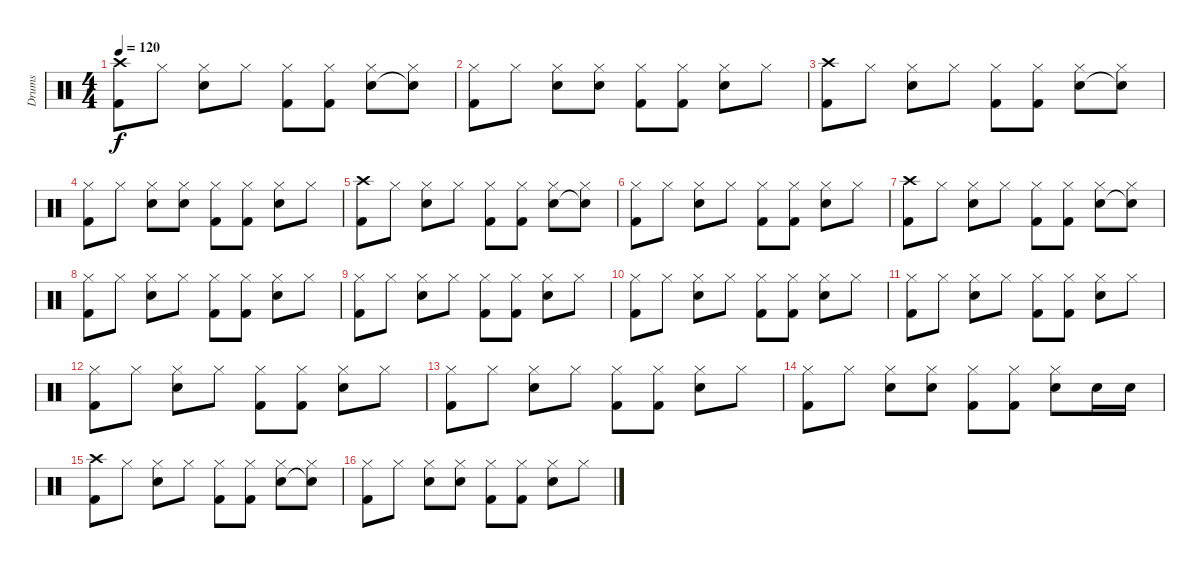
\track ("Drums" "Drums") {instrument percussion}
\staff {score}
\articulation defaults
\ts (4 4)
\tempo 120
\clef neutral
\ks c
("Kick (hit) 2" "Crash high (hit)").8{dy f} "Hi-Hat (closed)".8 ("Hi-Hat (closed)" "Snare (hit) 2").8 "Hi-Hat (closed)".8 ("Hi-Hat (closed)" "Kick (hit) 2").8 ("Hi-Hat (closed)" "Kick (hit) 2").8 ("Hi-Hat (closed)" "Snare (hit) 2").8 ("Hi-Hat (closed)" "Snare (hit)"{t}).8 |
("Hi-Hat (closed)" "Kick (hit) 2").8 "Hi-Hat (closed)".8 ("Hi-Hat (closed)" "Snare (hit) 2").8 ("Hi-Hat (closed)" "Snare (hit) 2").8 ("Hi-Hat (closed)" "Kick (hit) 2").8 ("Hi-Hat (closed)" "Kick (hit) 2").8 ("Hi-Hat (closed)" "Snare (hit) 2").8 "Hi-Hat (closed)".8 |
("Kick (hit) 2" "Crash high (hit)").8 "Hi-Hat (closed)".8 ("Hi-Hat (closed)" "Snare (hit) 2").8 "Hi-Hat (closed)".8 ("Hi-Hat (closed)" "Kick (hit) 2").8 ("Hi-Hat (closed)" "Kick (hit) 2").8 ("Hi-Hat (closed)" "Snare (hit) 2").8 ("Hi-Hat (closed)" "Snare (hit)"{t}).8 |
("Hi-Hat (closed)" "Kick (hit) 2").8 "Hi-Hat (closed)".8 ("Hi-Hat (closed)" "Snare (hit) 2").8 ("Hi-Hat (closed)" "Snare (hit) 2").8 ("Hi-Hat (closed)" "Kick (hit) 2").8 ("Hi-Hat (closed)" "Kick (hit) 2").8 ("Hi-Hat (closed)" "Snare (hit) 2").8 "Hi-Hat (closed)".8 |
("Kick (hit) 2" "Crash high (hit)").8 "Hi-Hat (closed)".8 ("Hi-Hat (closed)" "Snare (hit) 2").8 "Hi-Hat (closed)".8 ("Hi-Hat (closed)" "Kick (hit) 2").8 ("Hi-Hat (closed)" "Kick (hit) 2").8 ("Hi-Hat (closed)" "Snare (hit) 2").8 ("Hi-Hat (closed)" "Snare (hit)"{t}).8 |
("Hi-Hat (closed)" "Kick (hit) 2").8 "Hi-Hat (closed)".8 ("Hi-Hat (closed)" "Snare (hit) 2").8 "Hi-Hat (closed)".8 ("Hi-Hat (closed)" "Kick (hit) 2").8 ("Hi-Hat (closed)" "Kick (hit) 2").8 ("Hi-Hat (closed)" "Snare (hit) 2").8 "Hi-Hat (closed)".8 |
("Kick (hit) 2" "Crash high (hit)").8 "Hi-Hat (closed)".8 ("Hi-Hat (closed)" "Snare (hit) 2").8 "Hi-Hat (closed)".8 ("Hi-Hat (closed)" "Kick (hit) 2").8 ("Hi-Hat (closed)" "Kick (hit) 2").8 ("Hi-Hat (closed)" "Snare (hit) 2").8 ("Hi-Hat (closed)" "Snare (hit)"{t}).8 |
("Hi-Hat (closed)" "Kick (hit) 2").8 "Hi-Hat (closed)".8 ("Hi-Hat (closed)" "Snare (hit) 2").8 "Hi-Hat (closed)".8 ("Hi-Hat (closed)" "Kick (hit) 2").8 ("Hi-Hat (closed)" "Kick (hit) 2").8 ("Hi-Hat (closed)" "Snare (hit) 2").8 "Hi-Hat (closed)".8 |
("Hi-Hat (closed)" "Kick (hit) 2").8 "Hi-Hat (closed)".8 ("Hi-Hat (closed)" "Snare (hit) 2").8 "Hi-Hat (closed)".8 ("Hi-Hat (closed)" "Kick (hit) 2").8 ("Hi-Hat (closed)" "Kick (hit) 2").8 ("Hi-Hat (closed)" "Snare (hit) 2").8 "Hi-Hat (closed)".8 |
("Hi-Hat (closed)" "Kick (hit) 2").8 "Hi-Hat (closed)".8 ("Hi-Hat (closed)" "Snare (hit) 2").8 "Hi-Hat (closed)".8 ("Hi-Hat (closed)" "Kick (hit) 2").8 ("Hi-Hat (closed)" "Kick (hit) 2").8 ("Hi-Hat (closed)" "Snare (hit) 2").8 "Hi-Hat (closed)".8 |
("Hi-Hat (closed)" "Kick (hit) 2").8 "Hi-Hat (closed)".8 ("Hi-Hat (closed)" "Snare (hit) 2").8 "Hi-Hat (closed)".8 ("Hi-Hat (closed)" "Kick (hit) 2").8 ("Hi-Hat (closed)" "Kick (hit) 2").8 ("Hi-Hat (closed)" "Snare (hit) 2").8 "Hi-Hat (closed)".8 |
("Hi-Hat (closed)" "Kick (hit) 2").8 "Hi-Hat (closed)".8 ("Hi-Hat (closed)" "Snare (hit) 2").8 "Hi-Hat (closed)".8 ("Hi-Hat (closed)" "Kick (hit) 2").8 ("Hi-Hat (closed)" "Kick (hit) 2").8 ("Hi-Hat (closed)" "Snare (hit) 2").8 "Hi-Hat (closed)".8 |
("Hi-Hat (closed)" "Kick (hit) 2").8 "Hi-Hat (closed)".8 ("Hi-Hat (closed)" "Snare (hit) 2").8 "Hi-Hat (closed)".8 ("Hi-Hat (closed)" "Kick (hit) 2").8 ("Hi-Hat (closed)" "Kick (hit) 2").8 ("Hi-Hat (closed)" "Snare (hit) 2").8 "Hi-Hat (closed)".8 |
("Hi-Hat (closed)" "Kick (hit) 2").8 "Hi-Hat (closed)".8 ("Hi-Hat (closed)" "Snare (hit) 2").8 ("Hi-Hat (closed)" "Snare (hit) 2").8 ("Hi-Hat (closed)" "Kick (hit) 2").8 ("Hi-Hat (closed)" "Kick (hit) 2").8 ("Hi-Hat (closed)" "Snare (hit) 2").8 "Snare (hit) 2".16 "Snare (hit) 2".16 |
("Kick (hit) 2" "Crash high (hit)").8 "Hi-Hat (closed)".8 ("Hi-Hat (closed)" "Snare (hit) 2").8 "Hi-Hat (closed)".8 ("Hi-Hat (closed)" "Kick (hit) 2").8 ("Hi-Hat (closed)" "Kick (hit) 2").8 ("Hi-Hat (closed)" "Snare (hit) 2").8 ("Hi-Hat (closed)" "Snare (hit)"{t}).8 |
("Hi-Hat (closed)" "Kick (hit) 2").8 "Hi-Hat (closed)".8 ("Hi-Hat (closed)" "Snare (hit) 2").8 ("Hi-Hat (closed)" "Snare (hit) 2").8 ("Hi-Hat (closed)" "Kick (hit) 2").8 ("Hi-Hat (closed)" "Kick (hit) 2").8 ("Hi-Hat (closed)" "Snare (hit) 2").8 "Hi-Hat (closed)".8
